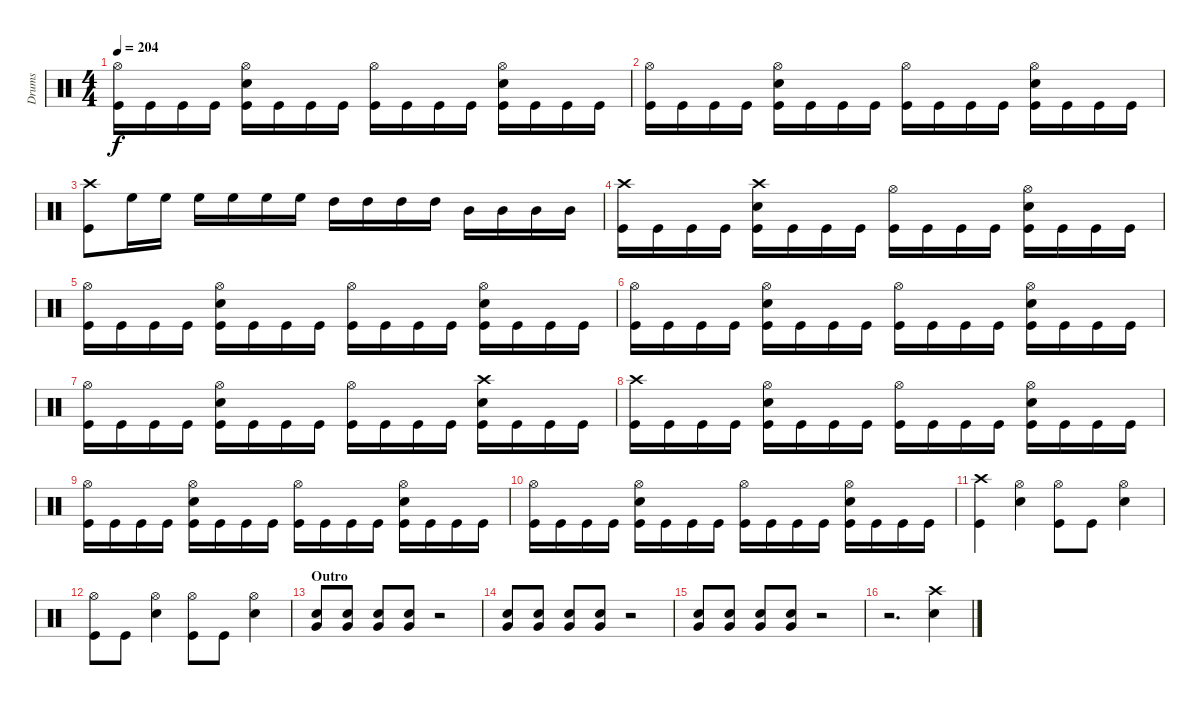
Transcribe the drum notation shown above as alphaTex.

\track ("Drums" "Drums") {instrument percussion}
\staff {score}
\articulation defaults
\ts (4 4)
\tempo 204
\clef neutral
\ks c
("Hi-Hat (open)" "Kick (hit)").16{dy f} "Kick (hit)".16 "Kick (hit)".16 "Kick (hit)".16 ("Hi-Hat (open)" "Snare (hit) 2" "Kick (hit)").16 "Kick (hit)".16 "Kick (hit)".16 "Kick (hit)".16 ("Hi-Hat (open)" "Kick (hit)").16 "Kick (hit)".16 "Kick (hit)".16 "Kick (hit)".16 ("Hi-Hat (open)" "Snare (hit) 2" "Kick (hit)").16 "Kick (hit)".16 "Kick (hit)".16 "Kick (hit)".16 |
("Hi-Hat (open)" "Kick (hit)").16 "Kick (hit)".16 "Kick (hit)".16 "Kick (hit)".16 ("Hi-Hat (open)" "Snare (hit) 2" "Kick (hit)").16 "Kick (hit)".16 "Kick (hit)".16 "Kick (hit)".16 ("Hi-Hat (open)" "Kick (hit)").16 "Kick (hit)".16 "Kick (hit)".16 "Kick (hit)".16 ("Hi-Hat (open)" "Snare (hit) 2" "Kick (hit)").16 "Kick (hit)".16 "Kick (hit)".16 "Kick (hit)".16 |
("Crash high (hit)" "Kick (hit)").8 "High Floor Tom (hit)".16 "High Floor Tom (hit)".16 "High Floor Tom (hit)".16 "High Floor Tom (hit)".16 "High Floor Tom (hit)".16 "High Floor Tom (hit)".16 "High Tom (hit)".16 "High Tom (hit)".16 "High Tom (hit)".16 "High Tom (hit)".16 "Mid Tom (hit)".16 "Mid Tom (hit)".16 "Mid Tom (hit)".16 "Mid Tom (hit)".16 |
("Crash high (hit)" "Kick (hit)").16 "Kick (hit)".16 "Kick (hit)".16 "Kick (hit)".16 ("Crash high (hit)" "Snare (hit) 2" "Kick (hit)").16 "Kick (hit)".16 "Kick (hit)".16 "Kick (hit)".16 ("Hi-Hat (open)" "Kick (hit)").16 "Kick (hit)".16 "Kick (hit)".16 "Kick (hit)".16 ("Hi-Hat (open)" "Snare (hit) 2" "Kick (hit)").16 "Kick (hit)".16 "Kick (hit)".16 "Kick (hit)".16 |
("Hi-Hat (open)" "Kick (hit)").16 "Kick (hit)".16 "Kick (hit)".16 "Kick (hit)".16 ("Hi-Hat (open)" "Snare (hit) 2" "Kick (hit)").16 "Kick (hit)".16 "Kick (hit)".16 "Kick (hit)".16 ("Hi-Hat (open)" "Kick (hit)").16 "Kick (hit)".16 "Kick (hit)".16 "Kick (hit)".16 ("Hi-Hat (open)" "Snare (hit) 2" "Kick (hit)").16 "Kick (hit)".16 "Kick (hit)".16 "Kick (hit)".16 |
("Hi-Hat (open)" "Kick (hit)").16 "Kick (hit)".16 "Kick (hit)".16 "Kick (hit)".16 ("Hi-Hat (open)" "Snare (hit) 2" "Kick (hit)").16 "Kick (hit)".16 "Kick (hit)".16 "Kick (hit)".16 ("Hi-Hat (open)" "Kick (hit)").16 "Kick (hit)".16 "Kick (hit)".16 "Kick (hit)".16 ("Hi-Hat (open)" "Snare (hit) 2" "Kick (hit)").16 "Kick (hit)".16 "Kick (hit)".16 "Kick (hit)".16 |
("Hi-Hat (open)" "Kick (hit)").16 "Kick (hit)".16 "Kick (hit)".16 "Kick (hit)".16 ("Hi-Hat (open)" "Snare (hit) 2" "Kick (hit)").16 "Kick (hit)".16 "Kick (hit)".16 "Kick (hit)".16 ("Hi-Hat (open)" "Kick (hit)").16 "Kick (hit)".16 "Kick (hit)".16 "Kick (hit)".16 ("Crash high (hit)" "Snare (hit) 2" "Kick (hit)").16 "Kick (hit)".16 "Kick (hit)".16 "Kick (hit)".16 |
("Crash high (hit)" "Kick (hit)").16 "Kick (hit)".16 "Kick (hit)".16 "Kick (hit)".16 ("Hi-Hat (open)" "Snare (hit) 2" "Kick (hit)").16 "Kick (hit)".16 "Kick (hit)".16 "Kick (hit)".16 ("Hi-Hat (open)" "Kick (hit)").16 "Kick (hit)".16 "Kick (hit)".16 "Kick (hit)".16 ("Hi-Hat (open)" "Snare (hit) 2" "Kick (hit)").16 "Kick (hit)".16 "Kick (hit)".16 "Kick (hit)".16 |
("Hi-Hat (open)" "Kick (hit)").16 "Kick (hit)".16 "Kick (hit)".16 "Kick (hit)".16 ("Hi-Hat (open)" "Snare (hit) 2" "Kick (hit)").16 "Kick (hit)".16 "Kick (hit)".16 "Kick (hit)".16 ("Hi-Hat (open)" "Kick (hit)").16 "Kick (hit)".16 "Kick (hit)".16 "Kick (hit)".16 ("Hi-Hat (open)" "Snare (hit) 2" "Kick (hit)").16 "Kick (hit)".16 "Kick (hit)".16 "Kick (hit)".16 |
("Hi-Hat (open)" "Kick (hit)").16 "Kick (hit)".16 "Kick (hit)".16 "Kick (hit)".16 ("Hi-Hat (open)" "Snare (hit) 2" "Kick (hit)").16 "Kick (hit)".16 "Kick (hit)".16 "Kick (hit)".16 ("Hi-Hat (open)" "Kick (hit)").16 "Kick (hit)".16 "Kick (hit)".16 "Kick (hit)".16 ("Hi-Hat (open)" "Snare (hit) 2" "Kick (hit)").16 "Kick (hit)".16 "Kick (hit)".16 "Kick (hit)".16 |
("Crash high (hit)" "Kick (hit)").4 ("Hi-Hat (open)" "Snare (hit) 2").4 ("Hi-Hat (open)" "Kick (hit)").8 "Kick (hit)".8 ("Hi-Hat (open)" "Snare (hit) 2").4 |
("Hi-Hat (open)" "Kick (hit)").8 "Kick (hit)".8 ("Hi-Hat (open)" "Snare (hit) 2").4 ("Hi-Hat (open)" "Kick (hit)").8 "Kick (hit)".8 ("Hi-Hat (open)" "Snare (hit) 2").4 |
\section ("" "Outro")
("Snare (hit) 2" "Very Low Tom (hit)").8 ("Snare (hit) 2" "Very Low Tom (hit)").8 ("Snare (hit) 2" "Very Low Tom (hit)").8 ("Snare (hit) 2" "Very Low Tom (hit)").8 r.2 |
("Snare (hit) 2" "Very Low Tom (hit)").8 ("Snare (hit) 2" "Very Low Tom (hit)").8 ("Snare (hit) 2" "Very Low Tom (hit)").8 ("Snare (hit) 2" "Very Low Tom (hit)").8 r.2 |
("Snare (hit) 2" "Very Low Tom (hit)").8 ("Snare (hit) 2" "Very Low Tom (hit)").8 ("Snare (hit) 2" "Very Low Tom (hit)").8 ("Snare (hit) 2" "Very Low Tom (hit)").8 r.2 |
r.2{d} ("Crash high (hit)" "Snare (hit) 2").4
